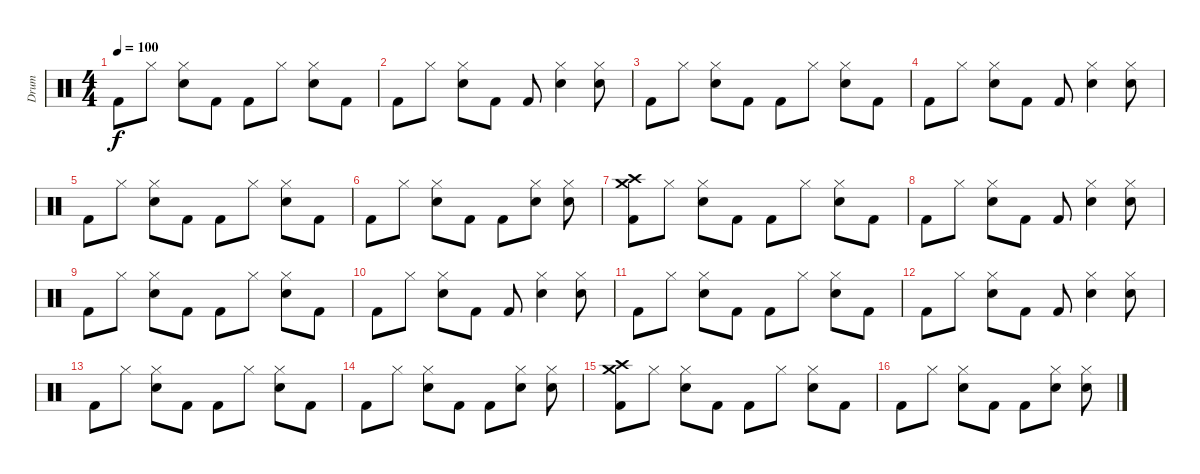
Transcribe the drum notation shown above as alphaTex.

\track ("Drum" "Drum") {instrument percussion}
\staff {score}
\articulation defaults
\ts (4 4)
\tempo 100
\clef neutral
\ks c "Kick (hit) 2".8{dy f} "Hi-Hat (closed)".8
("Hi-Hat (closed)" "Electric Snare (hit)").8 "Kick (hit) 2".8 "Kick (hit) 2".8 "Hi-Hat (closed)".8 ("Hi-Hat (closed)" "Electric Snare (hit)").8 "Kick (hit) 2".8 |
"Kick (hit) 2".8 "Hi-Hat (closed)".8 ("Hi-Hat (closed)" "Electric Snare (hit)").8 "Kick (hit) 2".8 "Kick (hit) 2".8 ("Hi-Hat (closed)" "Electric Snare (hit)").4 ("Hi-Hat (closed)" "Electric Snare (hit)").8 |
"Kick (hit) 2".8 "Hi-Hat (closed)".8 ("Hi-Hat (closed)" "Electric Snare (hit)").8 "Kick (hit) 2".8 "Kick (hit) 2".8 "Hi-Hat (closed)".8 ("Hi-Hat (closed)" "Electric Snare (hit)").8 "Kick (hit) 2".8 |
"Kick (hit) 2".8 "Hi-Hat (closed)".8 ("Hi-Hat (closed)" "Electric Snare (hit)").8 "Kick (hit) 2".8 "Kick (hit) 2".8 ("Hi-Hat (closed)" "Electric Snare (hit)").4 ("Hi-Hat (closed)" "Electric Snare (hit)").8 |
"Kick (hit) 2".8 "Hi-Hat (closed)".8 ("Hi-Hat (closed)" "Electric Snare (hit)").8 "Kick (hit) 2".8 "Kick (hit) 2".8 "Hi-Hat (closed)".8 ("Hi-Hat (closed)" "Electric Snare (hit)").8 "Kick (hit) 2".8 |
"Kick (hit) 2".8 "Hi-Hat (closed)".8 ("Hi-Hat (closed)" "Electric Snare (hit)").8 "Kick (hit) 2".8 "Kick (hit) 2".8 ("Hi-Hat (closed)" "Electric Snare (hit)").8 ("Hi-Hat (closed)" "Electric Snare (hit)").8 |
("Crash high (hit)" "Crash medium (hit)" "Kick (hit) 2").8 "Hi-Hat (closed)".8 ("Hi-Hat (closed)" "Electric Snare (hit)").8 "Kick (hit) 2".8 "Kick (hit) 2".8 "Hi-Hat (closed)".8 ("Hi-Hat (closed)" "Electric Snare (hit)").8 "Kick (hit) 2".8 |
"Kick (hit) 2".8 "Hi-Hat (closed)".8 ("Hi-Hat (closed)" "Electric Snare (hit)").8 "Kick (hit) 2".8 "Kick (hit) 2".8 ("Hi-Hat (closed)" "Electric Snare (hit)").4 ("Hi-Hat (closed)" "Electric Snare (hit)").8 |
"Kick (hit) 2".8 "Hi-Hat (closed)".8 ("Hi-Hat (closed)" "Electric Snare (hit)").8 "Kick (hit) 2".8 "Kick (hit) 2".8 "Hi-Hat (closed)".8 ("Hi-Hat (closed)" "Electric Snare (hit)").8 "Kick (hit) 2".8 |
"Kick (hit) 2".8 "Hi-Hat (closed)".8 ("Hi-Hat (closed)" "Electric Snare (hit)").8 "Kick (hit) 2".8 "Kick (hit) 2".8 ("Hi-Hat (closed)" "Electric Snare (hit)").4 ("Hi-Hat (closed)" "Electric Snare (hit)").8 |
"Kick (hit) 2".8 "Hi-Hat (closed)".8 ("Hi-Hat (closed)" "Electric Snare (hit)").8 "Kick (hit) 2".8 "Kick (hit) 2".8 "Hi-Hat (closed)".8 ("Hi-Hat (closed)" "Electric Snare (hit)").8 "Kick (hit) 2".8 |
"Kick (hit) 2".8 "Hi-Hat (closed)".8 ("Hi-Hat (closed)" "Electric Snare (hit)").8 "Kick (hit) 2".8 "Kick (hit) 2".8 ("Hi-Hat (closed)" "Electric Snare (hit)").4 ("Hi-Hat (closed)" "Electric Snare (hit)").8 |
"Kick (hit) 2".8 "Hi-Hat (closed)".8 ("Hi-Hat (closed)" "Electric Snare (hit)").8 "Kick (hit) 2".8 "Kick (hit) 2".8 "Hi-Hat (closed)".8 ("Hi-Hat (closed)" "Electric Snare (hit)").8 "Kick (hit) 2".8 |
"Kick (hit) 2".8 "Hi-Hat (closed)".8 ("Hi-Hat (closed)" "Electric Snare (hit)").8 "Kick (hit) 2".8 "Kick (hit) 2".8 ("Hi-Hat (closed)" "Electric Snare (hit)").8 ("Hi-Hat (closed)" "Electric Snare (hit)").8 |
("Crash high (hit)" "Crash medium (hit)" "Kick (hit) 2").8 "Hi-Hat (closed)".8 ("Hi-Hat (closed)" "Electric Snare (hit)").8 "Kick (hit) 2".8 "Kick (hit) 2".8 "Hi-Hat (closed)".8 ("Hi-Hat (closed)" "Electric Snare (hit)").8 "Kick (hit) 2".8 |
"Kick (hit) 2".8 "Hi-Hat (closed)".8 ("Hi-Hat (closed)" "Electric Snare (hit)").8 "Kick (hit) 2".8 "Kick (hit) 2".8 ("Hi-Hat (closed)" "Electric Snare (hit)").8 ("Hi-Hat (closed)" "Electric Snare (hit)").8
